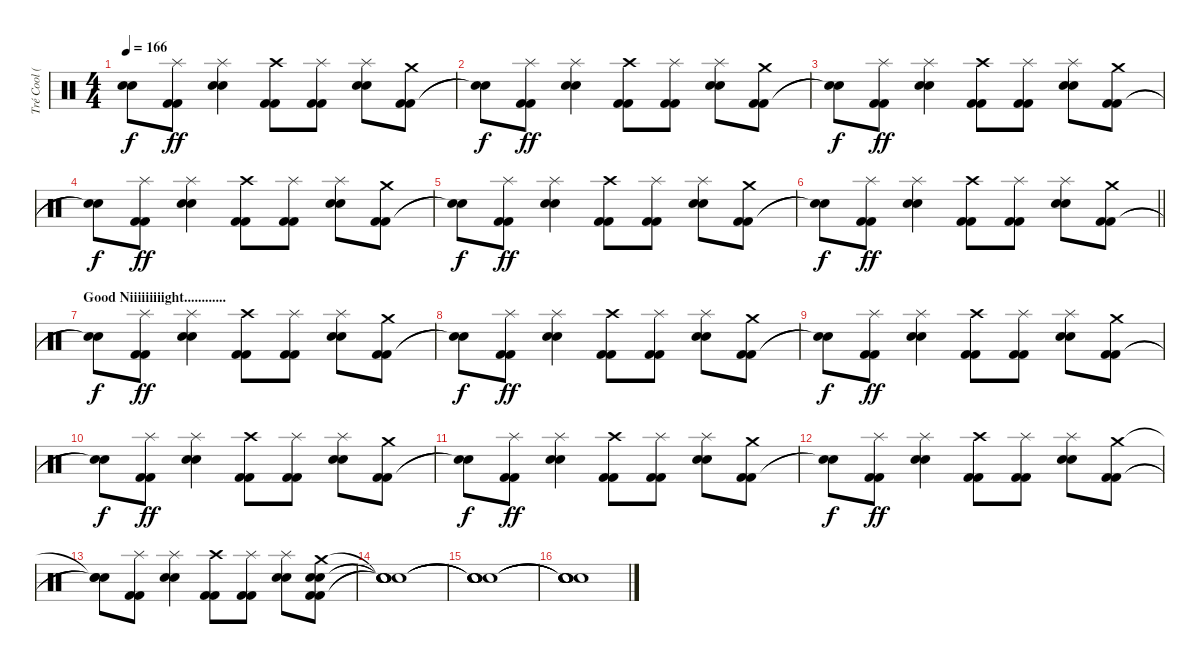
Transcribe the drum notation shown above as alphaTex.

\track ("Tré Cool (Drums)" "Tré Cool (") {instrument percussion}
\staff {score}
\articulation defaults
\ts (4 4)
\tempo 166
\clef neutral
\ks c
("Snare (hit)"{t} "Snare (hit)"{t}).8{dy f} ("Kick (hit) 2" "Kick (hit) 2" "Splash (hit)").8{dy ff} ("Snare (hit) 2" "Snare (hit) 2" "Splash (hit)").4 ("Kick (hit) 2" "Kick (hit) 2" "Crash high (hit)").8 ("Kick (hit) 2" "Kick (hit) 2" "Splash (hit)").8 ("Snare (hit) 2" "Snare (hit) 2" "Splash (hit)").8 ("Kick (hit) 2" "Kick (hit) 2" "Crash medium (hit)").8 |
("Snare (hit)"{t} "Snare (hit)"{t}).8{dy f} ("Kick (hit) 2" "Kick (hit) 2" "Splash (hit)").8{dy ff} ("Snare (hit) 2" "Snare (hit) 2" "Splash (hit)").4 ("Kick (hit) 2" "Kick (hit) 2" "Crash high (hit)").8 ("Kick (hit) 2" "Kick (hit) 2" "Splash (hit)").8 ("Snare (hit) 2" "Snare (hit) 2" "Splash (hit)").8 ("Kick (hit) 2" "Kick (hit) 2" "Crash medium (hit)").8 |
("Snare (hit)"{t} "Snare (hit)"{t}).8{dy f} ("Kick (hit) 2" "Kick (hit) 2" "Splash (hit)").8{dy ff} ("Snare (hit) 2" "Snare (hit) 2" "Splash (hit)").4 ("Kick (hit) 2" "Kick (hit) 2" "Crash high (hit)").8 ("Kick (hit) 2" "Kick (hit) 2" "Splash (hit)").8 ("Snare (hit) 2" "Snare (hit) 2" "Splash (hit)").8 ("Kick (hit) 2" "Kick (hit) 2" "Crash medium (hit)").8 |
("Snare (hit)"{t} "Snare (hit)"{t}).8{dy f} ("Kick (hit) 2" "Kick (hit) 2" "Splash (hit)").8{dy ff} ("Snare (hit) 2" "Snare (hit) 2" "Splash (hit)").4 ("Kick (hit) 2" "Kick (hit) 2" "Crash high (hit)").8 ("Kick (hit) 2" "Kick (hit) 2" "Splash (hit)").8 ("Snare (hit) 2" "Snare (hit) 2" "Splash (hit)").8 ("Kick (hit) 2" "Kick (hit) 2" "Crash medium (hit)").8 |
("Snare (hit)"{t} "Snare (hit)"{t}).8{dy f} ("Kick (hit) 2" "Kick (hit) 2" "Splash (hit)").8{dy ff} ("Snare (hit) 2" "Snare (hit) 2" "Splash (hit)").4 ("Kick (hit) 2" "Kick (hit) 2" "Crash high (hit)").8 ("Kick (hit) 2" "Kick (hit) 2" "Splash (hit)").8 ("Snare (hit) 2" "Snare (hit) 2" "Splash (hit)").8 ("Kick (hit) 2" "Kick (hit) 2" "Crash medium (hit)").8 |
\barLineRight lightlight
("Snare (hit)"{t} "Snare (hit)"{t}).8{dy f} ("Kick (hit) 2" "Kick (hit) 2" "Splash (hit)").8{dy ff} ("Snare (hit) 2" "Snare (hit) 2" "Splash (hit)").4 ("Kick (hit) 2" "Kick (hit) 2" "Crash high (hit)").8 ("Kick (hit) 2" "Kick (hit) 2" "Splash (hit)").8 ("Snare (hit) 2" "Snare (hit) 2" "Splash (hit)").8 ("Kick (hit) 2" "Kick (hit) 2" "Crash medium (hit)").8 |
\section ("" "Good Niiiiiiiiight............")
("Snare (hit)"{t} "Snare (hit)"{t}).8{dy f} ("Kick (hit) 2" "Kick (hit) 2" "Splash (hit)").8{dy ff} ("Snare (hit) 2" "Snare (hit) 2" "Splash (hit)").4 ("Kick (hit) 2" "Kick (hit) 2" "Crash high (hit)").8 ("Kick (hit) 2" "Kick (hit) 2" "Splash (hit)").8 ("Snare (hit) 2" "Snare (hit) 2" "Splash (hit)").8 ("Kick (hit) 2" "Kick (hit) 2" "Crash medium (hit)").8 |
("Snare (hit)"{t} "Snare (hit)"{t}).8{dy f} ("Kick (hit) 2" "Kick (hit) 2" "Splash (hit)").8{dy ff} ("Snare (hit) 2" "Snare (hit) 2" "Splash (hit)").4 ("Kick (hit) 2" "Kick (hit) 2" "Crash high (hit)").8 ("Kick (hit) 2" "Kick (hit) 2" "Splash (hit)").8 ("Snare (hit) 2" "Snare (hit) 2" "Splash (hit)").8 ("Kick (hit) 2" "Kick (hit) 2" "Crash medium (hit)").8 |
("Snare (hit)"{t} "Snare (hit)"{t}).8{dy f} ("Kick (hit) 2" "Kick (hit) 2" "Splash (hit)").8{dy ff} ("Snare (hit) 2" "Snare (hit) 2" "Splash (hit)").4 ("Kick (hit) 2" "Kick (hit) 2" "Crash high (hit)").8 ("Kick (hit) 2" "Kick (hit) 2" "Splash (hit)").8 ("Snare (hit) 2" "Snare (hit) 2" "Splash (hit)").8 ("Kick (hit) 2" "Kick (hit) 2" "Crash medium (hit)").8 |
("Snare (hit)"{t} "Snare (hit)"{t}).8{dy f} ("Kick (hit) 2" "Kick (hit) 2" "Splash (hit)").8{dy ff} ("Snare (hit) 2" "Snare (hit) 2" "Splash (hit)").4 ("Kick (hit) 2" "Kick (hit) 2" "Crash high (hit)").8 ("Kick (hit) 2" "Kick (hit) 2" "Splash (hit)").8 ("Snare (hit) 2" "Snare (hit) 2" "Splash (hit)").8 ("Kick (hit) 2" "Kick (hit) 2" "Crash medium (hit)").8 |
("Snare (hit)"{t} "Snare (hit)"{t}).8{dy f} ("Kick (hit) 2" "Kick (hit) 2" "Splash (hit)").8{dy ff} ("Snare (hit) 2" "Snare (hit) 2" "Splash (hit)").4 ("Kick (hit) 2" "Kick (hit) 2" "Crash high (hit)").8 ("Kick (hit) 2" "Kick (hit) 2" "Splash (hit)").8 ("Snare (hit) 2" "Snare (hit) 2" "Splash (hit)").8 ("Kick (hit) 2" "Kick (hit) 2" "Crash medium (hit)").8 |
("Snare (hit)"{t} "Snare (hit)"{t}).8{dy f} ("Kick (hit) 2" "Kick (hit) 2" "Splash (hit)").8{dy ff} ("Snare (hit) 2" "Snare (hit) 2" "Splash (hit)").4 ("Kick (hit) 2" "Kick (hit) 2" "Crash high (hit)").8 ("Kick (hit) 2" "Kick (hit) 2" "Splash (hit)").8 ("Snare (hit) 2" "Snare (hit) 2" "Splash (hit)").8 ("Kick (hit) 2" "Kick (hit) 2" "Crash medium (hit)").8 |
("Snare (hit)"{t} "Snare (hit)"{t} "Snare (hit)"{t}).8 ("Kick (hit) 2" "Kick (hit) 2" "Splash (hit)").8 ("Snare (hit) 2" "Snare (hit) 2" "Splash (hit)").4 ("Kick (hit) 2" "Kick (hit) 2" "Crash high (hit)").8 ("Kick (hit) 2" "Kick (hit) 2" "Splash (hit)").8 ("Snare (hit) 2" "Snare (hit) 2" "Splash (hit)").8 ("Kick (hit) 2" "Kick (hit) 2" "Snare (hit) 2" "Snare (hit) 2" "Crash medium (hit)").8 |
("Snare (hit)"{t} "Snare (hit)"{t} "Snare (hit)"{t} "Snare (hit)"{t} "Snare (hit)"{t}).1 |
("Snare (hit)"{t} "Snare (hit)"{t} "Snare (hit)"{t} "Snare (hit)"{t} "Snare (hit)"{t}).1 |
("Snare (hit)"{t} "Snare (hit)"{t} "Snare (hit)"{t} "Snare (hit)"{t} "Snare (hit)"{t}).1
